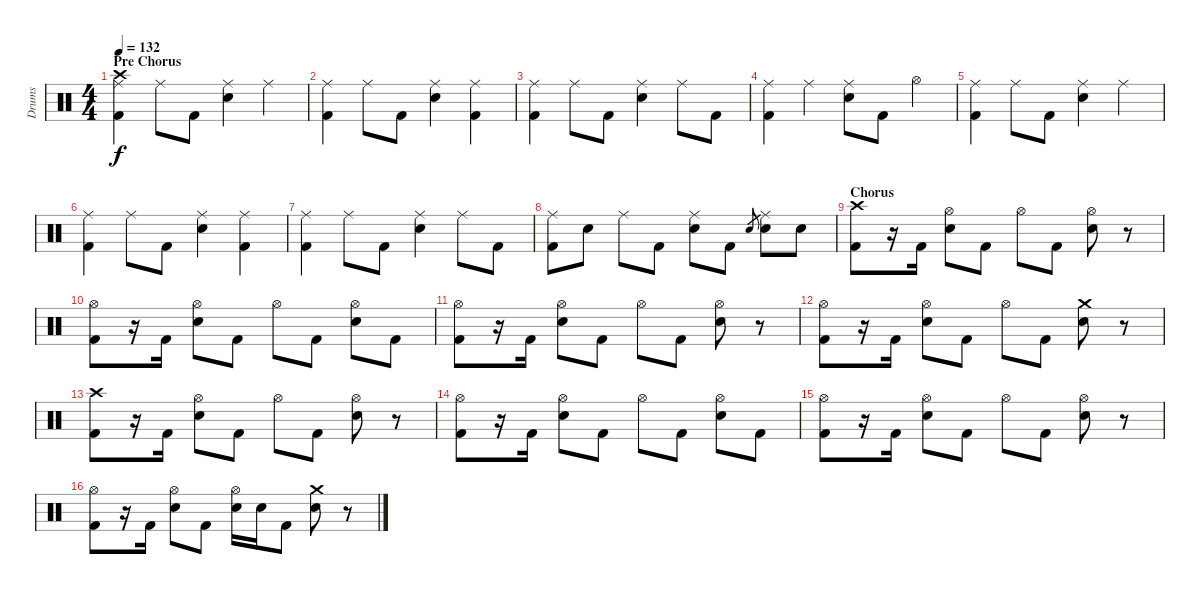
\track ("Drums" "Drums") {instrument percussion}
\staff {score}
\articulation defaults
\ts (4 4)
\section ("" "Pre Chorus")
\tempo 132
\clef neutral
\ks c
("Ride (middle)" "Crash high (hit)" "Kick (hit) 2").4{dy f} "Ride (middle)".8 "Kick (hit) 2".8 ("Ride (middle)" "Snare (hit) 2").4 "Ride (middle)".4 |
("Ride (middle)" "Kick (hit) 2").4 "Ride (middle)".8 "Kick (hit) 2".8 ("Ride (middle)" "Snare (hit) 2").4 ("Ride (middle)" "Kick (hit) 2").4 |
("Ride (middle)" "Kick (hit) 2").4 "Ride (middle)".8 "Kick (hit) 2".8 ("Ride (middle)" "Snare (hit) 2").4 "Ride (middle)".8 "Kick (hit) 2".8 |
("Ride (middle)" "Kick (hit) 2").4 "Ride (middle)".4 ("Ride (middle)" "Snare (hit) 2").8 "Kick (hit) 2".8 "Hi-Hat (open)".4 |
("Ride (middle)" "Kick (hit) 2").4 "Ride (middle)".8 "Kick (hit) 2".8 ("Ride (middle)" "Snare (hit) 2").4 "Ride (middle)".4 |
("Ride (middle)" "Kick (hit) 2").4 "Ride (middle)".8 "Kick (hit) 2".8 ("Ride (middle)" "Snare (hit) 2").4 ("Ride (middle)" "Kick (hit) 2").4 |
("Ride (middle)" "Kick (hit) 2").4 "Ride (middle)".8 "Kick (hit) 2".8 ("Ride (middle)" "Snare (hit) 2").4 "Ride (middle)".8 "Kick (hit) 2".8 |
("Ride (middle)" "Kick (hit) 2").8 "Snare (hit) 2".8 "Ride (middle)".8 "Kick (hit) 2".8 ("Ride (middle)" "Snare (hit) 2").8 "Kick (hit) 2".8 "Snare (hit) 2".8{gr} ("Ride (middle)" "Snare (hit) 2").8 "Snare (hit) 2".8 |
\section ("" "Chorus")
("Crash high (hit)" "Kick (hit) 2").8 r.16 "Kick (hit) 2".16 ("Hi-Hat (open)" "Snare (hit) 2").8 "Kick (hit) 2".8 "Hi-Hat (open)".8 "Kick (hit) 2".8 ("Hi-Hat (open)" "Snare (hit) 2").8 r.8 |
("Hi-Hat (open)" "Kick (hit) 2").8 r.16 "Kick (hit) 2".16 ("Hi-Hat (open)" "Snare (hit) 2").8 "Kick (hit) 2".8 "Hi-Hat (open)".8 "Kick (hit) 2".8 ("Hi-Hat (open)" "Snare (hit) 2").8 "Kick (hit) 2".8 |
("Hi-Hat (open)" "Kick (hit) 2").8 r.16 "Kick (hit) 2".16 ("Hi-Hat (open)" "Snare (hit) 2").8 "Kick (hit) 2".8 "Hi-Hat (open)".8 "Kick (hit) 2".8 ("Hi-Hat (open)" "Snare (hit) 2").8 r.8 |
("Hi-Hat (open)" "Kick (hit) 2").8 r.16 "Kick (hit) 2".16 ("Hi-Hat (open)" "Snare (hit) 2").8 "Kick (hit) 2".8 "Hi-Hat (open)".8 "Kick (hit) 2".8 ("Crash medium (hit)" "Snare (hit) 2").8 r.8 |
("Crash high (hit)" "Kick (hit) 2").8 r.16 "Kick (hit) 2".16 ("Hi-Hat (open)" "Snare (hit) 2").8 "Kick (hit) 2".8 "Hi-Hat (open)".8 "Kick (hit) 2".8 ("Hi-Hat (open)" "Snare (hit) 2").8 r.8 |
("Hi-Hat (open)" "Kick (hit) 2").8 r.16 "Kick (hit) 2".16 ("Hi-Hat (open)" "Snare (hit) 2").8 "Kick (hit) 2".8 "Hi-Hat (open)".8 "Kick (hit) 2".8 ("Hi-Hat (open)" "Snare (hit) 2").8 "Kick (hit) 2".8 |
("Hi-Hat (open)" "Kick (hit) 2").8 r.16 "Kick (hit) 2".16 ("Hi-Hat (open)" "Snare (hit) 2").8 "Kick (hit) 2".8 "Hi-Hat (open)".8 "Kick (hit) 2".8 ("Hi-Hat (open)" "Snare (hit) 2").8 r.8 |
("Hi-Hat (open)" "Kick (hit) 2").8 r.16 "Kick (hit) 2".16 ("Hi-Hat (open)" "Snare (hit) 2").8 "Kick (hit) 2".8 ("Hi-Hat (open)" "Snare (hit) 2").16 "Snare (hit) 2".16 "Kick (hit) 2".8 ("Crash medium (hit)" "Snare (hit) 2").8 r.8
